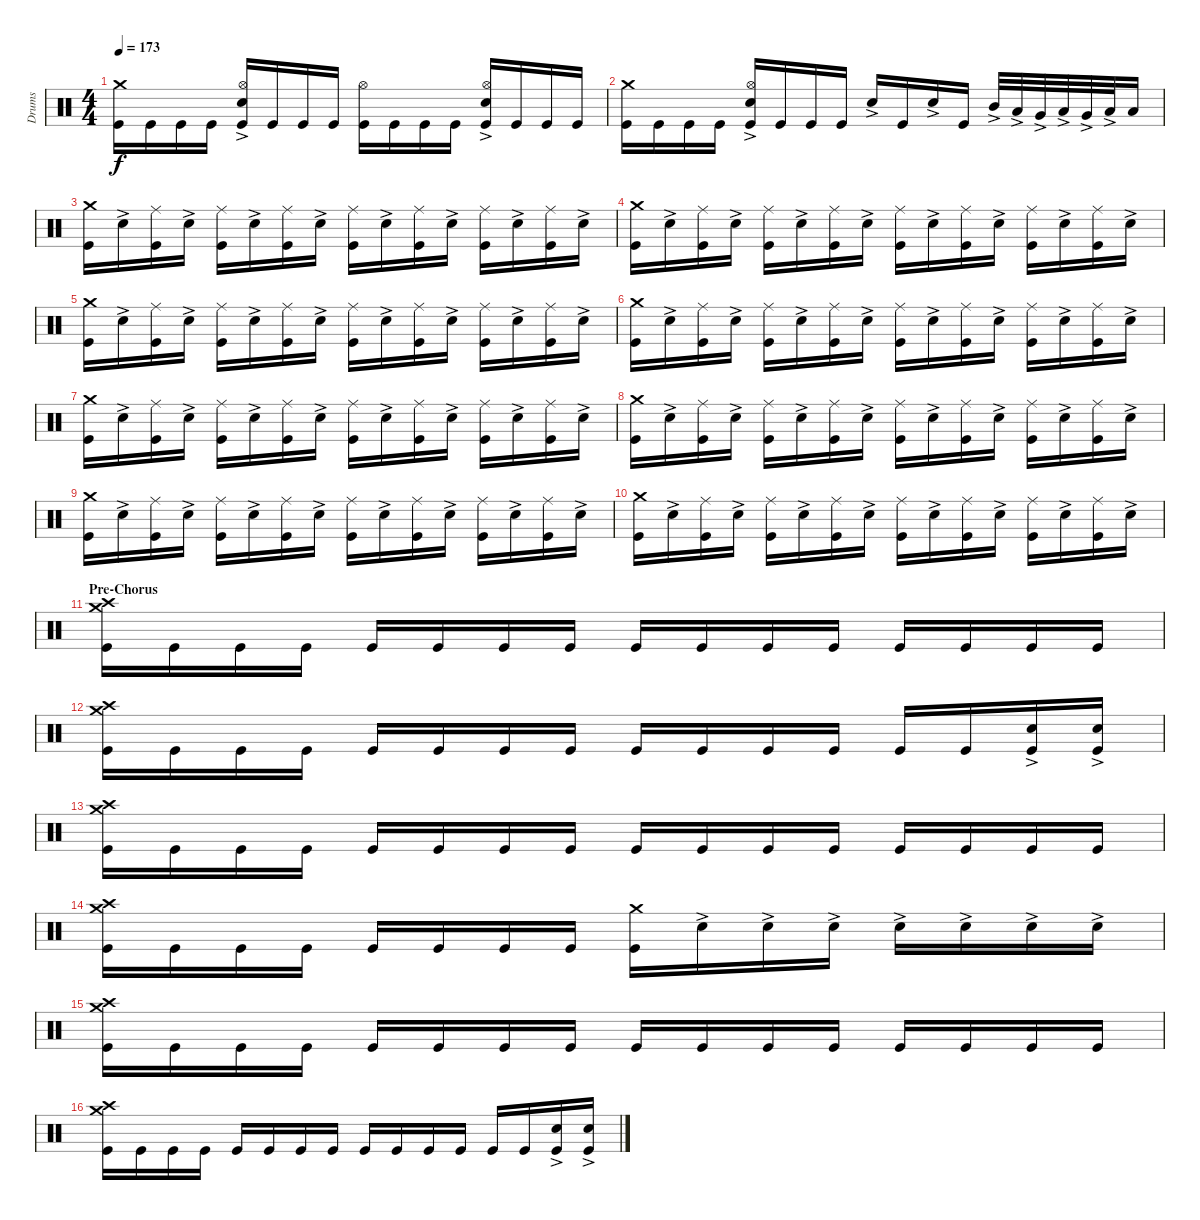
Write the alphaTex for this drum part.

\track ("Drums" "Drums") {instrument percussion}
\staff {score}
\articulation defaults
\ts (4 4)
\tempo 173
\clef neutral
\ks c
("Kick (hit)" "Crash medium (hit)").16{dy f} "Kick (hit)".16 "Kick (hit)".16 "Kick (hit)".16 ("Kick (hit)" "Hi-Hat (open)" "Snare (hit) 2"{ac}).16 "Kick (hit)".16 "Kick (hit)".16 "Kick (hit)".16 ("Kick (hit)" "Hi-Hat (open)").16 "Kick (hit)".16 "Kick (hit)".16 "Kick (hit)".16 ("Kick (hit)" "Hi-Hat (open)" "Snare (hit) 2"{ac}).16 "Kick (hit)".16 "Kick (hit)".16 "Kick (hit)".16 |
("Kick (hit)" "Crash medium (hit)").16 "Kick (hit)".16 "Kick (hit)".16 "Kick (hit)".16 ("Kick (hit)" "Hi-Hat (open)" "Snare (hit) 2"{ac}).16 "Kick (hit)".16 "Kick (hit)".16 "Kick (hit)".16 "Snare (hit) 2"{ac}.16 "Kick (hit)".16 "Snare (hit) 2"{ac}.16 "Kick (hit)".16 "Mid Tom (hit)"{ac}.32 "Low Tom (hit)"{ac}.32 "Very Low Tom (hit)"{ac}.32 "Low Tom (hit)"{ac}.32 "Very Low Tom (hit)"{ac}.32 "Low Floor Tom (hit)"{ac}.32 "Low Floor Tom (hit)".16 |
("Kick (hit)" "Crash medium (hit)").16 "Snare (hit) 2"{ac}.16 ("Kick (hit)" "Ride (middle)").16 "Snare (hit) 2"{ac}.16 ("Kick (hit)" "Ride (middle)").16 "Snare (hit) 2"{ac}.16 ("Kick (hit)" "Ride (middle)").16 "Snare (hit) 2"{ac}.16 ("Kick (hit)" "Ride (middle)").16 "Snare (hit) 2"{ac}.16 ("Kick (hit)" "Ride (middle)").16 "Snare (hit) 2"{ac}.16 ("Kick (hit)" "Ride (middle)").16 "Snare (hit) 2"{ac}.16 ("Kick (hit)" "Ride (middle)").16 "Snare (hit) 2"{ac}.16 |
("Kick (hit)" "Crash medium (hit)").16 "Snare (hit) 2"{ac}.16 ("Kick (hit)" "Ride (middle)").16 "Snare (hit) 2"{ac}.16 ("Kick (hit)" "Ride (middle)").16 "Snare (hit) 2"{ac}.16 ("Kick (hit)" "Ride (middle)").16 "Snare (hit) 2"{ac}.16 ("Kick (hit)" "Ride (middle)").16 "Snare (hit) 2"{ac}.16 ("Kick (hit)" "Ride (middle)").16 "Snare (hit) 2"{ac}.16 ("Kick (hit)" "Ride (middle)").16 "Snare (hit) 2"{ac}.16 ("Kick (hit)" "Ride (middle)").16 "Snare (hit) 2"{ac}.16 |
("Kick (hit)" "Crash medium (hit)").16 "Snare (hit) 2"{ac}.16 ("Kick (hit)" "Ride (middle)").16 "Snare (hit) 2"{ac}.16 ("Kick (hit)" "Ride (middle)").16 "Snare (hit) 2"{ac}.16 ("Kick (hit)" "Ride (middle)").16 "Snare (hit) 2"{ac}.16 ("Kick (hit)" "Ride (middle)").16 "Snare (hit) 2"{ac}.16 ("Kick (hit)" "Ride (middle)").16 "Snare (hit) 2"{ac}.16 ("Kick (hit)" "Ride (middle)").16 "Snare (hit) 2"{ac}.16 ("Kick (hit)" "Ride (middle)").16 "Snare (hit) 2"{ac}.16 |
("Kick (hit)" "Crash medium (hit)").16 "Snare (hit) 2"{ac}.16 ("Kick (hit)" "Ride (middle)").16 "Snare (hit) 2"{ac}.16 ("Kick (hit)" "Ride (middle)").16 "Snare (hit) 2"{ac}.16 ("Kick (hit)" "Ride (middle)").16 "Snare (hit) 2"{ac}.16 ("Kick (hit)" "Ride (middle)").16 "Snare (hit) 2"{ac}.16 ("Kick (hit)" "Ride (middle)").16 "Snare (hit) 2"{ac}.16 ("Kick (hit)" "Ride (middle)").16 "Snare (hit) 2"{ac}.16 ("Kick (hit)" "Ride (middle)").16 "Snare (hit) 2"{ac}.16 |
("Kick (hit)" "Crash medium (hit)").16 "Snare (hit) 2"{ac}.16 ("Kick (hit)" "Ride (middle)").16 "Snare (hit) 2"{ac}.16 ("Kick (hit)" "Ride (middle)").16 "Snare (hit) 2"{ac}.16 ("Kick (hit)" "Ride (middle)").16 "Snare (hit) 2"{ac}.16 ("Kick (hit)" "Ride (middle)").16 "Snare (hit) 2"{ac}.16 ("Kick (hit)" "Ride (middle)").16 "Snare (hit) 2"{ac}.16 ("Kick (hit)" "Ride (middle)").16 "Snare (hit) 2"{ac}.16 ("Kick (hit)" "Ride (middle)").16 "Snare (hit) 2"{ac}.16 |
("Kick (hit)" "Crash medium (hit)").16 "Snare (hit) 2"{ac}.16 ("Kick (hit)" "Ride (middle)").16 "Snare (hit) 2"{ac}.16 ("Kick (hit)" "Ride (middle)").16 "Snare (hit) 2"{ac}.16 ("Kick (hit)" "Ride (middle)").16 "Snare (hit) 2"{ac}.16 ("Kick (hit)" "Ride (middle)").16 "Snare (hit) 2"{ac}.16 ("Kick (hit)" "Ride (middle)").16 "Snare (hit) 2"{ac}.16 ("Kick (hit)" "Ride (middle)").16 "Snare (hit) 2"{ac}.16 ("Kick (hit)" "Ride (middle)").16 "Snare (hit) 2"{ac}.16 |
("Kick (hit)" "Crash medium (hit)").16 "Snare (hit) 2"{ac}.16 ("Kick (hit)" "Ride (middle)").16 "Snare (hit) 2"{ac}.16 ("Kick (hit)" "Ride (middle)").16 "Snare (hit) 2"{ac}.16 ("Kick (hit)" "Ride (middle)").16 "Snare (hit) 2"{ac}.16 ("Kick (hit)" "Ride (middle)").16 "Snare (hit) 2"{ac}.16 ("Kick (hit)" "Ride (middle)").16 "Snare (hit) 2"{ac}.16 ("Kick (hit)" "Ride (middle)").16 "Snare (hit) 2"{ac}.16 ("Kick (hit)" "Ride (middle)").16 "Snare (hit) 2"{ac}.16 |
("Kick (hit)" "Crash medium (hit)").16 "Snare (hit) 2"{ac}.16 ("Kick (hit)" "Ride (middle)").16 "Snare (hit) 2"{ac}.16 ("Kick (hit)" "Ride (middle)").16 "Snare (hit) 2"{ac}.16 ("Kick (hit)" "Ride (middle)").16 "Snare (hit) 2"{ac}.16 ("Kick (hit)" "Ride (middle)").16 "Snare (hit) 2"{ac}.16 ("Kick (hit)" "Ride (middle)").16 "Snare (hit) 2"{ac}.16 ("Kick (hit)" "Ride (middle)").16 "Snare (hit) 2"{ac}.16 ("Kick (hit)" "Ride (middle)").16 "Snare (hit) 2"{ac}.16 |
\section ("" "Pre-Chorus")
("Kick (hit)" "Crash medium (hit)" "Crash high (hit)").16 "Kick (hit)".16 "Kick (hit)".16 "Kick (hit)".16 "Kick (hit)".16 "Kick (hit)".16 "Kick (hit)".16 "Kick (hit)".16 "Kick (hit)".16 "Kick (hit)".16 "Kick (hit)".16 "Kick (hit)".16 "Kick (hit)".16 "Kick (hit)".16 "Kick (hit)".16 "Kick (hit)".16 |
("Kick (hit)" "Crash medium (hit)" "Crash high (hit)").16 "Kick (hit)".16 "Kick (hit)".16 "Kick (hit)".16 "Kick (hit)".16 "Kick (hit)".16 "Kick (hit)".16 "Kick (hit)".16 "Kick (hit)".16 "Kick (hit)".16 "Kick (hit)".16 "Kick (hit)".16 "Kick (hit)".16 "Kick (hit)".16 ("Kick (hit)" "Snare (hit) 2"{ac}).16 ("Kick (hit)" "Snare (hit) 2"{ac}).16 |
("Kick (hit)" "Crash medium (hit)" "Crash high (hit)").16 "Kick (hit)".16 "Kick (hit)".16 "Kick (hit)".16 "Kick (hit)".16 "Kick (hit)".16 "Kick (hit)".16 "Kick (hit)".16 "Kick (hit)".16 "Kick (hit)".16 "Kick (hit)".16 "Kick (hit)".16 "Kick (hit)".16 "Kick (hit)".16 "Kick (hit)".16 "Kick (hit)".16 |
("Kick (hit)" "Crash medium (hit)" "Crash high (hit)").16 "Kick (hit)".16 "Kick (hit)".16 "Kick (hit)".16 "Kick (hit)".16 "Kick (hit)".16 "Kick (hit)".16 "Kick (hit)".16 ("Kick (hit)" "Crash medium (hit)").16 "Snare (hit) 2"{ac}.16 "Snare (hit) 2"{ac}.16 "Snare (hit) 2"{ac}.16 "Snare (hit) 2"{ac}.16 "Snare (hit) 2"{ac}.16 "Snare (hit) 2"{ac}.16 "Snare (hit) 2"{ac}.16 |
("Kick (hit)" "Crash medium (hit)" "Crash high (hit)").16 "Kick (hit)".16 "Kick (hit)".16 "Kick (hit)".16 "Kick (hit)".16 "Kick (hit)".16 "Kick (hit)".16 "Kick (hit)".16 "Kick (hit)".16 "Kick (hit)".16 "Kick (hit)".16 "Kick (hit)".16 "Kick (hit)".16 "Kick (hit)".16 "Kick (hit)".16 "Kick (hit)".16 |
("Kick (hit)" "Crash medium (hit)" "Crash high (hit)").16 "Kick (hit)".16 "Kick (hit)".16 "Kick (hit)".16 "Kick (hit)".16 "Kick (hit)".16 "Kick (hit)".16 "Kick (hit)".16 "Kick (hit)".16 "Kick (hit)".16 "Kick (hit)".16 "Kick (hit)".16 "Kick (hit)".16 "Kick (hit)".16 ("Kick (hit)" "Snare (hit) 2"{ac}).16 ("Kick (hit)" "Snare (hit) 2"{ac}).16
